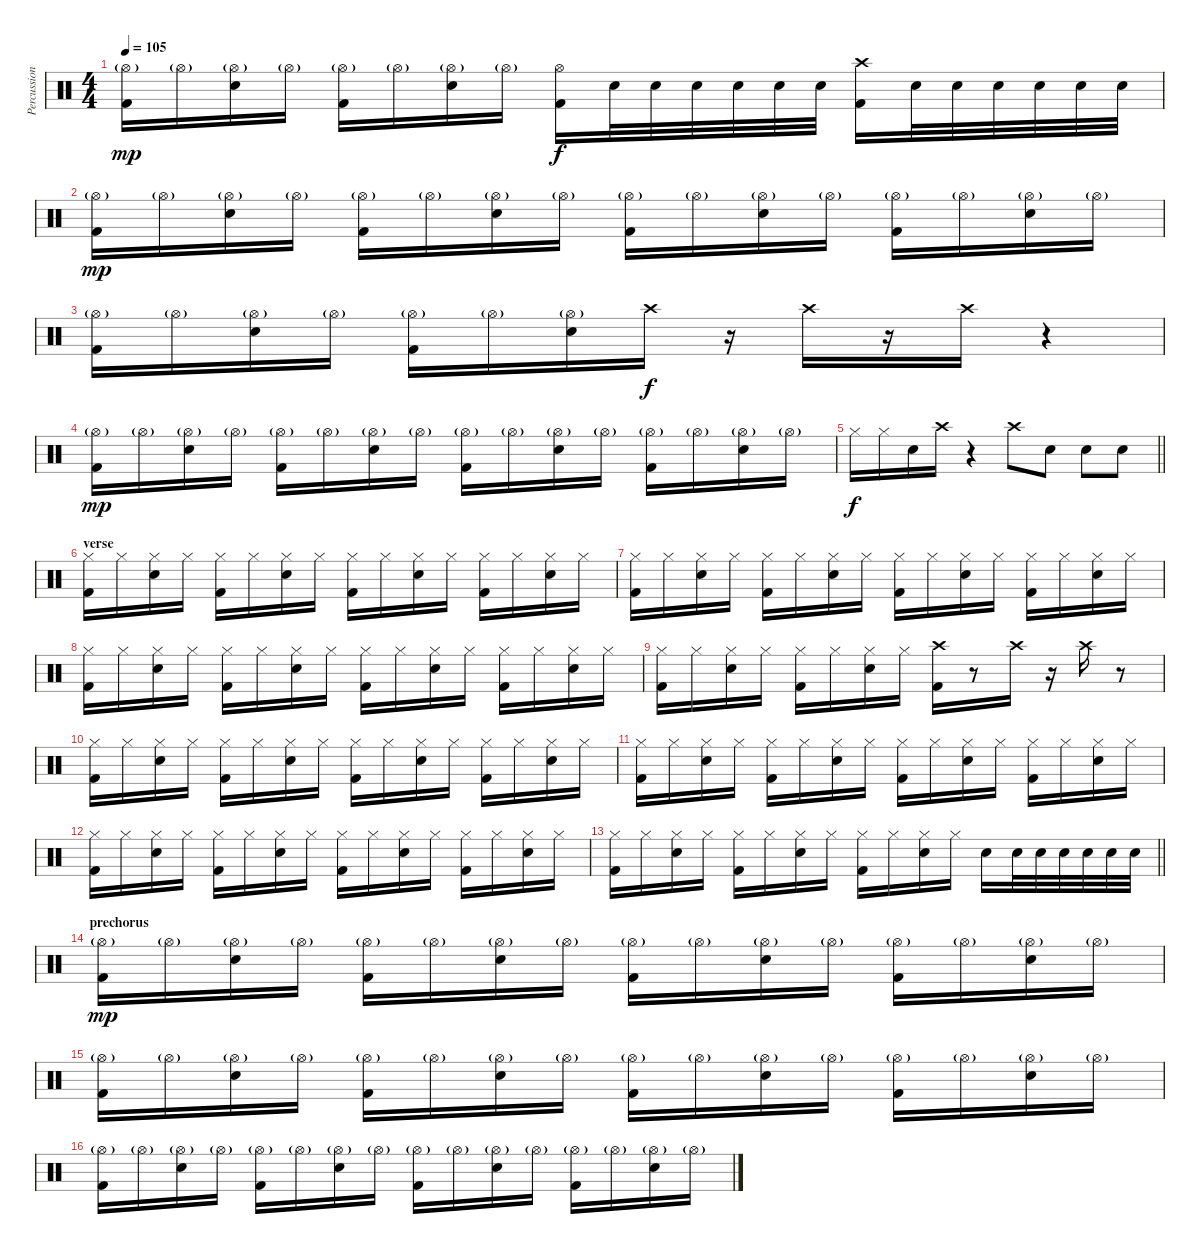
\track ("Percussion" "Percussion") {instrument percussion}
\staff {score}
\articulation defaults
\ts (4 4)
\tempo 105
\clef neutral
\ks c
("Hi-Hat (open)"{g} "Kick (hit) 2").16{dy mp} "Hi-Hat (open)"{g}.16 ("Hi-Hat (open)"{g} "Electric Snare (hit)").16 "Hi-Hat (open)"{g}.16 ("Hi-Hat (open)"{g} "Kick (hit) 2").16 "Hi-Hat (open)"{g}.16 ("Hi-Hat (open)"{g} "Electric Snare (hit)").16 "Hi-Hat (open)"{g}.16 ("Hi-Hat (open)" "Kick (hit) 2").16{dy f} "Electric Snare (hit)".32 "Electric Snare (hit)".32 "Electric Snare (hit)".32 "Electric Snare (hit)".32 "Electric Snare (hit)".32 "Electric Snare (hit)".32 ("Crash high (hit)" "Kick (hit) 2").16 "Electric Snare (hit)".32 "Electric Snare (hit)".32 "Electric Snare (hit)".32 "Electric Snare (hit)".32 "Electric Snare (hit)".32 "Electric Snare (hit)".32 |
("Hi-Hat (open)"{g} "Kick (hit) 2").16{dy mp} "Hi-Hat (open)"{g}.16 ("Hi-Hat (open)"{g} "Electric Snare (hit)").16 "Hi-Hat (open)"{g}.16 ("Hi-Hat (open)"{g} "Kick (hit) 2").16 "Hi-Hat (open)"{g}.16 ("Hi-Hat (open)"{g} "Electric Snare (hit)").16 "Hi-Hat (open)"{g}.16 ("Hi-Hat (open)"{g} "Kick (hit) 2").16 "Hi-Hat (open)"{g}.16 ("Hi-Hat (open)"{g} "Electric Snare (hit)").16 "Hi-Hat (open)"{g}.16 ("Hi-Hat (open)"{g} "Kick (hit) 2").16 "Hi-Hat (open)"{g}.16 ("Hi-Hat (open)"{g} "Electric Snare (hit)").16 "Hi-Hat (open)"{g}.16 |
("Hi-Hat (open)"{g} "Kick (hit) 2").16 "Hi-Hat (open)"{g}.16 ("Hi-Hat (open)"{g} "Electric Snare (hit)").16 "Hi-Hat (open)"{g}.16 ("Hi-Hat (open)"{g} "Kick (hit) 2").16 "Hi-Hat (open)"{g}.16 ("Hi-Hat (open)"{g} "Electric Snare (hit)").16 "Crash high (hit)".16{dy f} r.16 "Crash high (hit)".16 r.16 "Crash high (hit)".16 r.4 |
("Hi-Hat (open)"{g} "Kick (hit) 2").16{dy mp} "Hi-Hat (open)"{g}.16 ("Hi-Hat (open)"{g} "Electric Snare (hit)").16 "Hi-Hat (open)"{g}.16 ("Hi-Hat (open)"{g} "Kick (hit) 2").16 "Hi-Hat (open)"{g}.16 ("Hi-Hat (open)"{g} "Electric Snare (hit)").16 "Hi-Hat (open)"{g}.16 ("Hi-Hat (open)"{g} "Kick (hit) 2").16 "Hi-Hat (open)"{g}.16 ("Hi-Hat (open)"{g} "Electric Snare (hit)").16 "Hi-Hat (open)"{g}.16 ("Hi-Hat (open)"{g} "Kick (hit) 2").16 "Hi-Hat (open)"{g}.16 ("Hi-Hat (open)"{g} "Electric Snare (hit)").16 "Hi-Hat (open)"{g}.16 |
\barLineRight lightlight "Hi-Hat (closed)".16{dy f} "Hi-Hat (closed)".16 "Electric Snare (hit)".16 "Crash high (hit)".16
r.4 "Crash high (hit)".8 "Electric Snare (hit)".8 "Electric Snare (hit)".8 "Electric Snare (hit)".8 |
\section ("" "verse")
("Hi-Hat (closed)" "Kick (hit) 2").16 "Hi-Hat (closed)".16 ("Hi-Hat (closed)" "Electric Snare (hit)").16 "Hi-Hat (closed)".16 ("Hi-Hat (closed)" "Kick (hit) 2").16 "Hi-Hat (closed)".16 ("Hi-Hat (closed)" "Electric Snare (hit)").16 "Hi-Hat (closed)".16 ("Hi-Hat (closed)" "Kick (hit) 2").16 "Hi-Hat (closed)".16 ("Hi-Hat (closed)" "Electric Snare (hit)").16 "Hi-Hat (closed)".16 ("Hi-Hat (closed)" "Kick (hit) 2").16 "Hi-Hat (closed)".16 ("Hi-Hat (closed)" "Electric Snare (hit)").16 "Hi-Hat (closed)".16 |
("Hi-Hat (closed)" "Kick (hit) 2").16 "Hi-Hat (closed)".16 ("Hi-Hat (closed)" "Electric Snare (hit)").16 "Hi-Hat (closed)".16 ("Hi-Hat (closed)" "Kick (hit) 2").16 "Hi-Hat (closed)".16 ("Hi-Hat (closed)" "Electric Snare (hit)").16 "Hi-Hat (closed)".16 ("Hi-Hat (closed)" "Kick (hit) 2").16 "Hi-Hat (closed)".16 ("Hi-Hat (closed)" "Electric Snare (hit)").16 "Hi-Hat (closed)".16 ("Hi-Hat (closed)" "Kick (hit) 2").16 "Hi-Hat (closed)".16 ("Hi-Hat (closed)" "Electric Snare (hit)").16 "Hi-Hat (closed)".16 |
("Hi-Hat (closed)" "Kick (hit) 2").16 "Hi-Hat (closed)".16 ("Hi-Hat (closed)" "Electric Snare (hit)").16 "Hi-Hat (closed)".16 ("Hi-Hat (closed)" "Kick (hit) 2").16 "Hi-Hat (closed)".16 ("Hi-Hat (closed)" "Electric Snare (hit)").16 "Hi-Hat (closed)".16 ("Hi-Hat (closed)" "Kick (hit) 2").16 "Hi-Hat (closed)".16 ("Hi-Hat (closed)" "Electric Snare (hit)").16 "Hi-Hat (closed)".16 ("Hi-Hat (closed)" "Kick (hit) 2").16 "Hi-Hat (closed)".16 ("Hi-Hat (closed)" "Electric Snare (hit)").16 "Hi-Hat (closed)".16 |
("Hi-Hat (closed)" "Kick (hit) 2").16 "Hi-Hat (closed)".16 ("Hi-Hat (closed)" "Electric Snare (hit)").16 "Hi-Hat (closed)".16 ("Hi-Hat (closed)" "Kick (hit) 2").16 "Hi-Hat (closed)".16 ("Hi-Hat (closed)" "Electric Snare (hit)").16 "Hi-Hat (closed)".16 ("Crash high (hit)" "Kick (hit) 2").16 r.8 "Crash high (hit)".16 r.16 "Crash high (hit)".16 r.8 |
("Hi-Hat (closed)" "Kick (hit) 2").16 "Hi-Hat (closed)".16 ("Hi-Hat (closed)" "Electric Snare (hit)").16 "Hi-Hat (closed)".16 ("Hi-Hat (closed)" "Kick (hit) 2").16 "Hi-Hat (closed)".16 ("Hi-Hat (closed)" "Electric Snare (hit)").16 "Hi-Hat (closed)".16 ("Hi-Hat (closed)" "Kick (hit) 2").16 "Hi-Hat (closed)".16 ("Hi-Hat (closed)" "Electric Snare (hit)").16 "Hi-Hat (closed)".16 ("Hi-Hat (closed)" "Kick (hit) 2").16 "Hi-Hat (closed)".16 ("Hi-Hat (closed)" "Electric Snare (hit)").16 "Hi-Hat (closed)".16 |
("Hi-Hat (closed)" "Kick (hit) 2").16 "Hi-Hat (closed)".16 ("Hi-Hat (closed)" "Electric Snare (hit)").16 "Hi-Hat (closed)".16 ("Hi-Hat (closed)" "Kick (hit) 2").16 "Hi-Hat (closed)".16 ("Hi-Hat (closed)" "Electric Snare (hit)").16 "Hi-Hat (closed)".16 ("Hi-Hat (closed)" "Kick (hit) 2").16 "Hi-Hat (closed)".16 ("Hi-Hat (closed)" "Electric Snare (hit)").16 "Hi-Hat (closed)".16 ("Hi-Hat (closed)" "Kick (hit) 2").16 "Hi-Hat (closed)".16 ("Hi-Hat (closed)" "Electric Snare (hit)").16 "Hi-Hat (closed)".16 |
("Hi-Hat (closed)" "Kick (hit) 2").16 "Hi-Hat (closed)".16 ("Hi-Hat (closed)" "Electric Snare (hit)").16 "Hi-Hat (closed)".16 ("Hi-Hat (closed)" "Kick (hit) 2").16 "Hi-Hat (closed)".16 ("Hi-Hat (closed)" "Electric Snare (hit)").16 "Hi-Hat (closed)".16 ("Hi-Hat (closed)" "Kick (hit) 2").16 "Hi-Hat (closed)".16 ("Hi-Hat (closed)" "Electric Snare (hit)").16 "Hi-Hat (closed)".16 ("Hi-Hat (closed)" "Kick (hit) 2").16 "Hi-Hat (closed)".16 ("Hi-Hat (closed)" "Electric Snare (hit)").16 "Hi-Hat (closed)".16 |
\barLineRight lightlight
("Hi-Hat (closed)" "Kick (hit) 2").16 "Hi-Hat (closed)".16 ("Hi-Hat (closed)" "Electric Snare (hit)").16 "Hi-Hat (closed)".16 ("Hi-Hat (closed)" "Kick (hit) 2").16 "Hi-Hat (closed)".16 ("Hi-Hat (closed)" "Electric Snare (hit)").16 "Hi-Hat (closed)".16 ("Hi-Hat (closed)" "Kick (hit) 2").16 "Hi-Hat (closed)".16 ("Hi-Hat (closed)" "Electric Snare (hit)").16 "Hi-Hat (closed)".16 "Electric Snare (hit)".16 "Electric Snare (hit)".32 "Electric Snare (hit)".32 "Electric Snare (hit)".32 "Electric Snare (hit)".32 "Electric Snare (hit)".32 "Electric Snare (hit)".32 |
\section ("" "prechorus")
("Hi-Hat (open)"{g} "Kick (hit) 2").16{dy mp} "Hi-Hat (open)"{g}.16 ("Hi-Hat (open)"{g} "Electric Snare (hit)").16 "Hi-Hat (open)"{g}.16 ("Hi-Hat (open)"{g} "Kick (hit) 2").16 "Hi-Hat (open)"{g}.16 ("Hi-Hat (open)"{g} "Electric Snare (hit)").16 "Hi-Hat (open)"{g}.16 ("Hi-Hat (open)"{g} "Kick (hit) 2").16 "Hi-Hat (open)"{g}.16 ("Hi-Hat (open)"{g} "Electric Snare (hit)").16 "Hi-Hat (open)"{g}.16 ("Hi-Hat (open)"{g} "Kick (hit) 2").16 "Hi-Hat (open)"{g}.16 ("Hi-Hat (open)"{g} "Electric Snare (hit)").16 "Hi-Hat (open)"{g}.16 |
("Hi-Hat (open)"{g} "Kick (hit) 2").16 "Hi-Hat (open)"{g}.16 ("Hi-Hat (open)"{g} "Electric Snare (hit)").16 "Hi-Hat (open)"{g}.16 ("Hi-Hat (open)"{g} "Kick (hit) 2").16 "Hi-Hat (open)"{g}.16 ("Hi-Hat (open)"{g} "Electric Snare (hit)").16 "Hi-Hat (open)"{g}.16 ("Hi-Hat (open)"{g} "Kick (hit) 2").16 "Hi-Hat (open)"{g}.16 ("Hi-Hat (open)"{g} "Electric Snare (hit)").16 "Hi-Hat (open)"{g}.16 ("Hi-Hat (open)"{g} "Kick (hit) 2").16 "Hi-Hat (open)"{g}.16 ("Hi-Hat (open)"{g} "Electric Snare (hit)").16 "Hi-Hat (open)"{g}.16 |
("Hi-Hat (open)"{g} "Kick (hit) 2").16 "Hi-Hat (open)"{g}.16 ("Hi-Hat (open)"{g} "Electric Snare (hit)").16 "Hi-Hat (open)"{g}.16 ("Hi-Hat (open)"{g} "Kick (hit) 2").16 "Hi-Hat (open)"{g}.16 ("Hi-Hat (open)"{g} "Electric Snare (hit)").16 "Hi-Hat (open)"{g}.16 ("Hi-Hat (open)"{g} "Kick (hit) 2").16 "Hi-Hat (open)"{g}.16 ("Hi-Hat (open)"{g} "Electric Snare (hit)").16 "Hi-Hat (open)"{g}.16 ("Hi-Hat (open)"{g} "Kick (hit) 2").16 "Hi-Hat (open)"{g}.16 ("Hi-Hat (open)"{g} "Electric Snare (hit)").16 "Hi-Hat (open)"{g}.16
